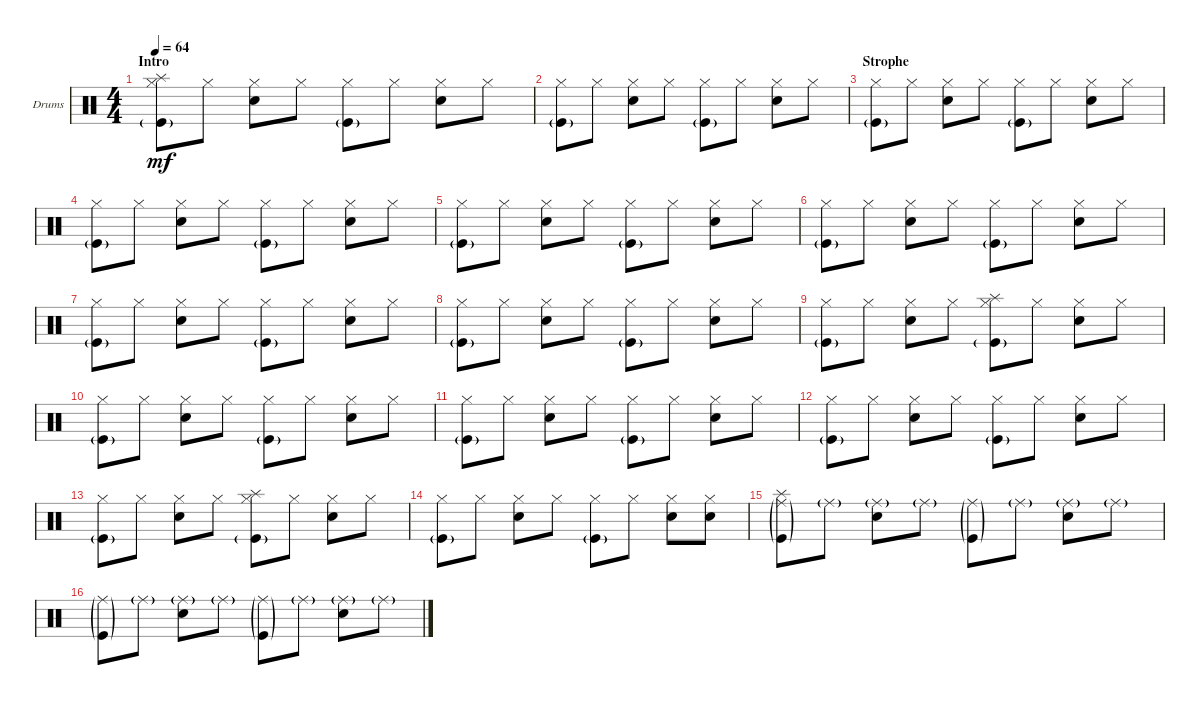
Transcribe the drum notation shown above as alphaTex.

\defaultSystemsLayout 4
\bracketExtendMode groupsimilarinstruments
\firstSystemTrackNameOrientation horizontal
\otherSystemsTrackNameOrientation horizontal
\track ("Drumkit" "Drums") {instrument percussion}
\staff {score}
\articulation defaults
\ts (4 4)
\section ("" "Intro")
\tempo 64
\clef neutral
\ks c
("Hi-Hat (closed)" "Kick (hit)"{g} "Splash (hit)").8{dy mf} "Hi-Hat (closed)".8 ("Hi-Hat (closed)" "Snare (hit) 2").8 "Hi-Hat (closed)".8 ("Hi-Hat (closed)" "Kick (hit)"{g}).8 "Hi-Hat (closed)".8 ("Hi-Hat (closed)" "Snare (hit) 2").8 "Hi-Hat (closed)".8 |
("Hi-Hat (closed)" "Kick (hit)"{g}).8 "Hi-Hat (closed)".8 ("Hi-Hat (closed)" "Snare (hit) 2").8 "Hi-Hat (closed)".8 ("Hi-Hat (closed)" "Kick (hit)"{g}).8 "Hi-Hat (closed)".8 ("Hi-Hat (closed)" "Snare (hit) 2").8 "Hi-Hat (closed)".8 |
\section ("" "Strophe")
("Hi-Hat (closed)" "Kick (hit)"{g}).8 "Hi-Hat (closed)".8 ("Hi-Hat (closed)" "Snare (hit) 2").8 "Hi-Hat (closed)".8 ("Hi-Hat (closed)" "Kick (hit)"{g}).8 "Hi-Hat (closed)".8 ("Hi-Hat (closed)" "Snare (hit) 2").8 "Hi-Hat (closed)".8 |
("Hi-Hat (closed)" "Kick (hit)"{g}).8 "Hi-Hat (closed)".8 ("Hi-Hat (closed)" "Snare (hit) 2").8 "Hi-Hat (closed)".8 ("Hi-Hat (closed)" "Kick (hit)"{g}).8 "Hi-Hat (closed)".8 ("Hi-Hat (closed)" "Snare (hit) 2").8 "Hi-Hat (closed)".8 |
("Hi-Hat (closed)" "Kick (hit)"{g}).8 "Hi-Hat (closed)".8 ("Hi-Hat (closed)" "Snare (hit) 2").8 "Hi-Hat (closed)".8 ("Hi-Hat (closed)" "Kick (hit)"{g}).8 "Hi-Hat (closed)".8 ("Hi-Hat (closed)" "Snare (hit) 2").8 "Hi-Hat (closed)".8 |
("Hi-Hat (closed)" "Kick (hit)"{g}).8 "Hi-Hat (closed)".8 ("Hi-Hat (closed)" "Snare (hit) 2").8 "Hi-Hat (closed)".8 ("Hi-Hat (closed)" "Kick (hit)"{g}).8 "Hi-Hat (closed)".8 ("Hi-Hat (closed)" "Snare (hit) 2").8 "Hi-Hat (closed)".8 |
("Hi-Hat (closed)" "Kick (hit)"{g}).8 "Hi-Hat (closed)".8 ("Hi-Hat (closed)" "Snare (hit) 2").8 "Hi-Hat (closed)".8 ("Hi-Hat (closed)" "Kick (hit)"{g}).8 "Hi-Hat (closed)".8 ("Hi-Hat (closed)" "Snare (hit) 2").8 "Hi-Hat (closed)".8 |
("Hi-Hat (closed)" "Kick (hit)"{g}).8 "Hi-Hat (closed)".8 ("Hi-Hat (closed)" "Snare (hit) 2").8 "Hi-Hat (closed)".8 ("Hi-Hat (closed)" "Kick (hit)"{g}).8 "Hi-Hat (closed)".8 ("Hi-Hat (closed)" "Snare (hit) 2").8 "Hi-Hat (closed)".8 |
("Hi-Hat (closed)" "Kick (hit)"{g}).8 "Hi-Hat (closed)".8 ("Hi-Hat (closed)" "Snare (hit) 2").8 "Hi-Hat (closed)".8 ("Hi-Hat (closed)" "Kick (hit)"{g} "Splash (hit)").8 "Hi-Hat (closed)".8 ("Hi-Hat (closed)" "Snare (hit) 2").8 "Hi-Hat (closed)".8 |
("Hi-Hat (closed)" "Kick (hit)"{g}).8 "Hi-Hat (closed)".8 ("Hi-Hat (closed)" "Snare (hit) 2").8 "Hi-Hat (closed)".8 ("Hi-Hat (closed)" "Kick (hit)"{g}).8 "Hi-Hat (closed)".8 ("Hi-Hat (closed)" "Snare (hit) 2").8 "Hi-Hat (closed)".8 |
("Hi-Hat (closed)" "Kick (hit)"{g}).8 "Hi-Hat (closed)".8 ("Hi-Hat (closed)" "Snare (hit) 2").8 "Hi-Hat (closed)".8 ("Hi-Hat (closed)" "Kick (hit)"{g}).8 "Hi-Hat (closed)".8 ("Hi-Hat (closed)" "Snare (hit) 2").8 "Hi-Hat (closed)".8 |
("Hi-Hat (closed)" "Kick (hit)"{g}).8 "Hi-Hat (closed)".8 ("Hi-Hat (closed)" "Snare (hit) 2").8 "Hi-Hat (closed)".8 ("Hi-Hat (closed)" "Kick (hit)"{g}).8 "Hi-Hat (closed)".8 ("Hi-Hat (closed)" "Snare (hit) 2").8 "Hi-Hat (closed)".8 |
("Hi-Hat (closed)" "Kick (hit)"{g}).8 "Hi-Hat (closed)".8 ("Hi-Hat (closed)" "Snare (hit) 2").8 "Hi-Hat (closed)".8 ("Hi-Hat (closed)" "Kick (hit)"{g} "Splash (hit)").8 "Hi-Hat (closed)".8 ("Hi-Hat (closed)" "Snare (hit) 2").8 "Hi-Hat (closed)".8 |
("Hi-Hat (closed)" "Kick (hit)"{g}).8 "Hi-Hat (closed)".8 ("Hi-Hat (closed)" "Snare (hit) 2").8 "Hi-Hat (closed)".8 ("Hi-Hat (closed)" "Kick (hit)"{g}).8 "Hi-Hat (closed)".8 ("Hi-Hat (closed)" "Snare (hit) 2").8 ("Hi-Hat (closed)" "Snare (hit) 2").8 |
("Ride (middle)"{g} "Splash (hit)" "Kick (hit)"{g}).8 "Ride (middle)"{g}.8 ("Ride (middle)"{g} "Snare (hit) 2").8 "Ride (middle)"{g}.8 ("Ride (middle)"{g} "Kick (hit)"{g}).8 "Ride (middle)"{g}.8 ("Ride (middle)"{g} "Snare (hit) 2").8 "Ride (middle)"{g}.8 |
("Ride (middle)"{g} "Kick (hit)"{g}).8 "Ride (middle)"{g}.8 ("Ride (middle)"{g} "Snare (hit) 2").8 "Ride (middle)"{g}.8 ("Ride (middle)"{g} "Kick (hit)"{g}).8 "Ride (middle)"{g}.8 ("Ride (middle)"{g} "Snare (hit) 2").8 "Ride (middle)"{g}.8
